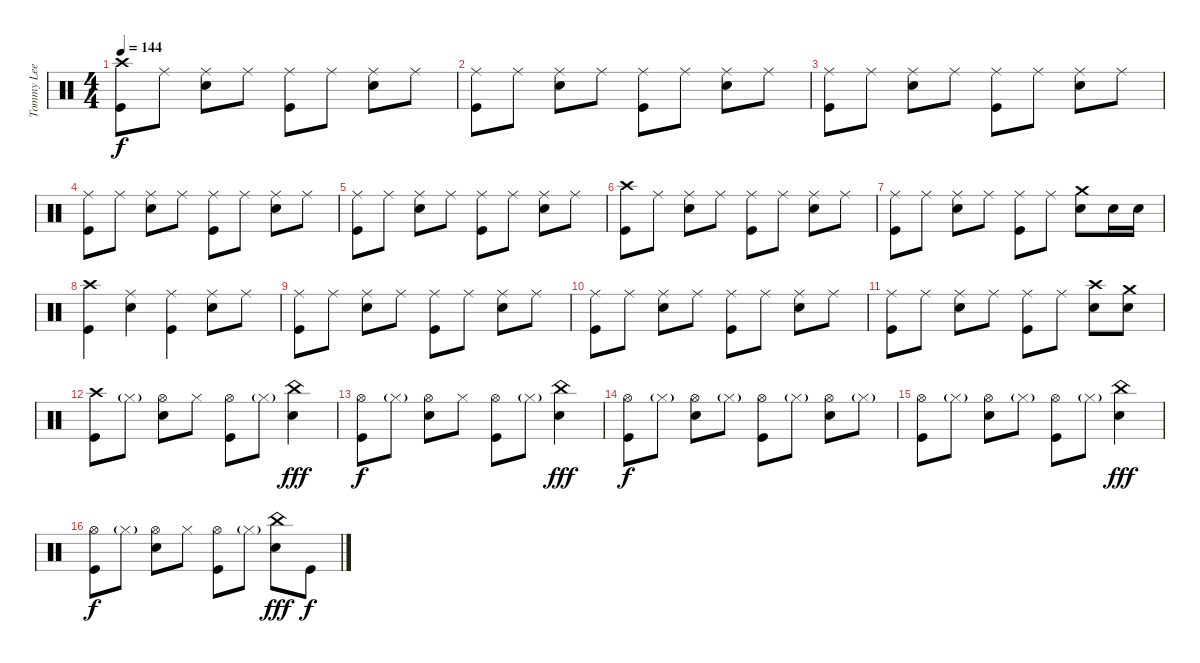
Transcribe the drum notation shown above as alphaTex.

\track ("Tommy Lee" "Tommy Lee") {instrument percussion}
\staff {score}
\articulation defaults
\ts (4 4)
\tempo 144
\clef neutral
\ks c
("Crash high (hit)" "Kick (hit)").8{dy f} "Ride (middle)".8 ("Ride (middle)" "Snare (hit) 2").8 "Ride (middle)".8 ("Ride (middle)" "Kick (hit)").8 "Ride (middle)".8 ("Ride (middle)" "Snare (hit) 2").8 "Ride (middle)".8 |
("Ride (middle)" "Kick (hit)").8 "Ride (middle)".8 ("Ride (middle)" "Snare (hit) 2").8 "Ride (middle)".8 ("Ride (middle)" "Kick (hit)").8 "Ride (middle)".8 ("Ride (middle)" "Snare (hit) 2").8 "Ride (middle)".8 |
("Ride (middle)" "Kick (hit)").8 "Ride (middle)".8 ("Ride (middle)" "Snare (hit) 2").8 "Ride (middle)".8 ("Ride (middle)" "Kick (hit)").8 "Ride (middle)".8 ("Ride (middle)" "Snare (hit) 2").8 "Ride (middle)".8 |
("Ride (middle)" "Kick (hit)").8 "Ride (middle)".8 ("Ride (middle)" "Snare (hit) 2").8 "Ride (middle)".8 ("Ride (middle)" "Kick (hit)").8 "Ride (middle)".8 ("Ride (middle)" "Snare (hit) 2").8 "Ride (middle)".8 |
("Ride (middle)" "Kick (hit)").8 "Ride (middle)".8 ("Ride (middle)" "Snare (hit) 2").8 "Ride (middle)".8 ("Ride (middle)" "Kick (hit)").8 "Ride (middle)".8 ("Ride (middle)" "Snare (hit) 2").8 "Ride (middle)".8 |
("Crash high (hit)" "Kick (hit)").8 "Ride (middle)".8 ("Ride (middle)" "Snare (hit) 2").8 "Ride (middle)".8 ("Ride (middle)" "Kick (hit)").8 "Ride (middle)".8 ("Ride (middle)" "Snare (hit) 2").8 "Ride (middle)".8 |
("Ride (middle)" "Kick (hit)").8 "Ride (middle)".8 ("Ride (middle)" "Snare (hit) 2").8 "Ride (middle)".8 ("Ride (middle)" "Kick (hit)").8 "Ride (middle)".8 ("Crash medium (hit)" "Snare (hit) 2").8 "Snare (hit) 2".16 "Snare (hit) 2".16 |
("Crash high (hit)" "Kick (hit)").4 ("Ride (middle)" "Snare (hit) 2").4 ("Ride (middle)" "Kick (hit)").4 ("Ride (middle)" "Snare (hit) 2").8 "Ride (middle)".8 |
("Ride (middle)" "Kick (hit)").8 "Ride (middle)".8 ("Ride (middle)" "Snare (hit) 2").8 "Ride (middle)".8 ("Ride (middle)" "Kick (hit)").8 "Ride (middle)".8 ("Ride (middle)" "Snare (hit) 2").8 "Ride (middle)".8 |
("Ride (middle)" "Kick (hit)").8 "Ride (middle)".8 ("Ride (middle)" "Snare (hit) 2").8 "Ride (middle)".8 ("Ride (middle)" "Kick (hit)").8 "Ride (middle)".8 ("Ride (middle)" "Snare (hit) 2").8 "Ride (middle)".8 |
("Ride (middle)" "Kick (hit)").8 "Ride (middle)".8 ("Ride (middle)" "Snare (hit) 2").8 "Ride (middle)".8 ("Ride (middle)" "Kick (hit)").8 "Ride (middle)".8 ("Crash high (hit)" "Snare (hit) 2").8 ("Crash medium (hit)" "Snare (hit) 2").8 |
("Crash high (hit)" "Kick (hit)").8 "Hi-Hat (closed)"{g}.8 ("Hi-Hat (open)" "Snare (hit) 2").8 "Hi-Hat (closed)".8 ("Hi-Hat (open)" "Kick (hit)").8 "Hi-Hat (closed)"{g}.8 ("Snare (hit) 2" "China (hit)").4{dy fff} |
("Hi-Hat (open)" "Kick (hit)").8{dy f} "Hi-Hat (closed)"{g}.8 ("Hi-Hat (open)" "Snare (hit) 2").8 "Hi-Hat (closed)".8 ("Hi-Hat (open)" "Kick (hit)").8 "Hi-Hat (closed)"{g}.8 ("China (hit)" "Snare (hit) 2").4{dy fff} |
("Hi-Hat (open)" "Kick (hit)").8{dy f} "Hi-Hat (closed)"{g}.8 ("Hi-Hat (open)" "Snare (hit) 2").8 "Hi-Hat (closed)"{g}.8 ("Hi-Hat (open)" "Kick (hit)").8 "Hi-Hat (closed)"{g}.8 ("Hi-Hat (open)" "Snare (hit) 2").8 "Hi-Hat (closed)"{g}.8 |
("Hi-Hat (open)" "Kick (hit)").8 "Hi-Hat (closed)"{g}.8 ("Hi-Hat (open)" "Snare (hit) 2").8 "Hi-Hat (closed)"{g}.8 ("Hi-Hat (open)" "Kick (hit)").8 "Hi-Hat (closed)"{g}.8 ("China (hit)" "Snare (hit) 2").4{dy fff} |
("Hi-Hat (open)" "Kick (hit)").8{dy f} "Hi-Hat (closed)"{g}.8 ("Hi-Hat (open)" "Snare (hit) 2").8 "Hi-Hat (closed)".8 ("Hi-Hat (open)" "Kick (hit)").8 "Hi-Hat (closed)"{g}.8 ("China (hit)" "Snare (hit) 2").8{dy fff} "Kick (hit)".8{dy f}
